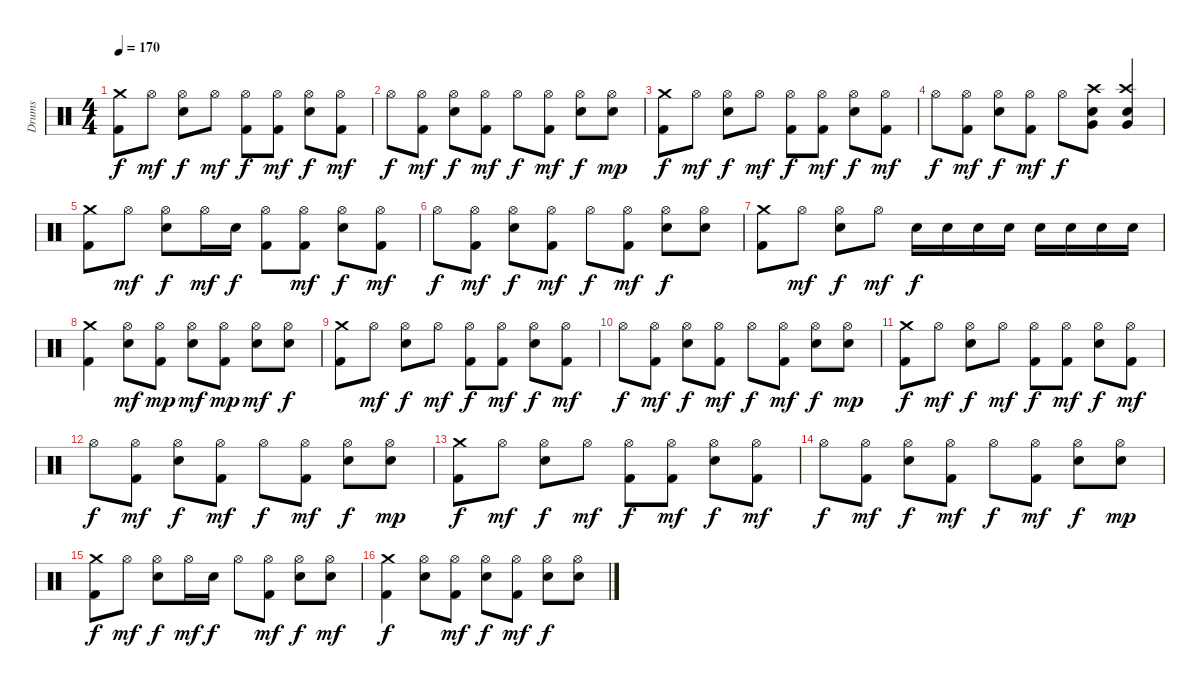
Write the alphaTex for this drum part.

\track ("Drums" "Drums") {instrument percussion}
\staff {score}
\articulation defaults
\ts (4 4)
\tempo 170
\clef neutral
\ks c
("Crash medium (hit)" "Kick (hit) 2").8{dy f} "Hi-Hat (open)".8{dy mf} ("Hi-Hat (open)" "Electric Snare (hit)").8{dy f} "Hi-Hat (open)".8{dy mf} ("Hi-Hat (open)" "Kick (hit) 2").8{dy f} ("Hi-Hat (open)" "Kick (hit) 2").8{dy mf} ("Hi-Hat (open)" "Electric Snare (hit)").8{dy f} ("Hi-Hat (open)" "Kick (hit) 2").8{dy mf} |
"Hi-Hat (open)".8{dy f} ("Hi-Hat (open)" "Kick (hit) 2").8{dy mf} ("Hi-Hat (open)" "Electric Snare (hit)").8{dy f} ("Hi-Hat (open)" "Kick (hit) 2").8{dy mf} "Hi-Hat (open)".8{dy f} ("Hi-Hat (open)" "Kick (hit) 2").8{dy mf} ("Hi-Hat (open)" "Electric Snare (hit)").8{dy f} ("Hi-Hat (open)" "Electric Snare (hit)").8{dy mp} |
("Crash medium (hit)" "Kick (hit) 2").8{dy f} "Hi-Hat (open)".8{dy mf} ("Hi-Hat (open)" "Electric Snare (hit)").8{dy f} "Hi-Hat (open)".8{dy mf} ("Hi-Hat (open)" "Kick (hit) 2").8{dy f} ("Hi-Hat (open)" "Kick (hit) 2").8{dy mf} ("Hi-Hat (open)" "Electric Snare (hit)").8{dy f} ("Hi-Hat (open)" "Kick (hit) 2").8{dy mf} |
"Hi-Hat (open)".8{dy f} ("Hi-Hat (open)" "Kick (hit) 2").8{dy mf} ("Hi-Hat (open)" "Electric Snare (hit)").8{dy f} ("Hi-Hat (open)" "Kick (hit) 2").8{dy mf} "Hi-Hat (open)".8{dy f} ("Crash high (hit)" "Very Low Tom (hit)" "Electric Snare (hit)").8 ("Crash high (hit)" "Very Low Tom (hit)" "Electric Snare (hit)").4 |
("Crash medium (hit)" "Kick (hit) 2").8 "Hi-Hat (open)".8{dy mf} ("Hi-Hat (open)" "Electric Snare (hit)").8{dy f} "Hi-Hat (open)".16{dy mf} "Electric Snare (hit)".16{dy f} ("Hi-Hat (open)" "Kick (hit) 2").8 ("Hi-Hat (open)" "Kick (hit) 2").8{dy mf} ("Hi-Hat (open)" "Electric Snare (hit)").8{dy f} ("Hi-Hat (open)" "Kick (hit) 2").8{dy mf} |
"Hi-Hat (open)".8{dy f} ("Hi-Hat (open)" "Kick (hit) 2").8{dy mf} ("Hi-Hat (open)" "Electric Snare (hit)").8{dy f} ("Hi-Hat (open)" "Kick (hit) 2").8{dy mf} "Hi-Hat (open)".8{dy f} ("Hi-Hat (open)" "Kick (hit) 2").8{dy mf} ("Hi-Hat (open)" "Electric Snare (hit)").8{dy f} ("Hi-Hat (open)" "Electric Snare (hit)").8 |
("Crash medium (hit)" "Kick (hit) 2").8 "Hi-Hat (open)".8{dy mf} ("Hi-Hat (open)" "Electric Snare (hit)").8{dy f} "Hi-Hat (open)".8{dy mf} "Electric Snare (hit)".16{dy f} "Electric Snare (hit)".16 "Electric Snare (hit)".16 "Electric Snare (hit)".16 "Electric Snare (hit)".16 "Electric Snare (hit)".16 "Electric Snare (hit)".16 "Electric Snare (hit)".16 |
("Crash medium (hit)" "Kick (hit) 2").4 ("Hi-Hat (open)" "Electric Snare (hit)").8{dy mf} ("Hi-Hat (open)" "Kick (hit) 2").8{dy mp} ("Hi-Hat (open)" "Electric Snare (hit)").8{dy mf} ("Hi-Hat (open)" "Kick (hit) 2").8{dy mp} ("Hi-Hat (open)" "Electric Snare (hit)").8{dy mf} ("Hi-Hat (open)" "Electric Snare (hit)").8{dy f} |
("Crash medium (hit)" "Kick (hit) 2").8 "Hi-Hat (open)".8{dy mf} ("Hi-Hat (open)" "Electric Snare (hit)").8{dy f} "Hi-Hat (open)".8{dy mf} ("Hi-Hat (open)" "Kick (hit) 2").8{dy f} ("Hi-Hat (open)" "Kick (hit) 2").8{dy mf} ("Hi-Hat (open)" "Electric Snare (hit)").8{dy f} ("Hi-Hat (open)" "Kick (hit) 2").8{dy mf} |
"Hi-Hat (open)".8{dy f} ("Hi-Hat (open)" "Kick (hit) 2").8{dy mf} ("Hi-Hat (open)" "Electric Snare (hit)").8{dy f} ("Hi-Hat (open)" "Kick (hit) 2").8{dy mf} "Hi-Hat (open)".8{dy f} ("Hi-Hat (open)" "Kick (hit) 2").8{dy mf} ("Hi-Hat (open)" "Electric Snare (hit)").8{dy f} ("Hi-Hat (open)" "Electric Snare (hit)").8{dy mp} |
("Crash medium (hit)" "Kick (hit) 2").8{dy f} "Hi-Hat (open)".8{dy mf} ("Hi-Hat (open)" "Electric Snare (hit)").8{dy f} "Hi-Hat (open)".8{dy mf} ("Hi-Hat (open)" "Kick (hit) 2").8{dy f} ("Hi-Hat (open)" "Kick (hit) 2").8{dy mf} ("Hi-Hat (open)" "Electric Snare (hit)").8{dy f} ("Hi-Hat (open)" "Kick (hit) 2").8{dy mf} |
"Hi-Hat (open)".8{dy f} ("Hi-Hat (open)" "Kick (hit) 2").8{dy mf} ("Hi-Hat (open)" "Electric Snare (hit)").8{dy f} ("Hi-Hat (open)" "Kick (hit) 2").8{dy mf} "Hi-Hat (open)".8{dy f} ("Hi-Hat (open)" "Kick (hit) 2").8{dy mf} ("Hi-Hat (open)" "Electric Snare (hit)").8{dy f} ("Hi-Hat (open)" "Electric Snare (hit)").8{dy mp} |
("Crash medium (hit)" "Kick (hit) 2").8{dy f} "Hi-Hat (open)".8{dy mf} ("Hi-Hat (open)" "Electric Snare (hit)").8{dy f} "Hi-Hat (open)".8{dy mf} ("Hi-Hat (open)" "Kick (hit) 2").8{dy f} ("Hi-Hat (open)" "Kick (hit) 2").8{dy mf} ("Hi-Hat (open)" "Electric Snare (hit)").8{dy f} ("Hi-Hat (open)" "Kick (hit) 2").8{dy mf} |
"Hi-Hat (open)".8{dy f} ("Hi-Hat (open)" "Kick (hit) 2").8{dy mf} ("Hi-Hat (open)" "Electric Snare (hit)").8{dy f} ("Hi-Hat (open)" "Kick (hit) 2").8{dy mf} "Hi-Hat (open)".8{dy f} ("Hi-Hat (open)" "Kick (hit) 2").8{dy mf} ("Hi-Hat (open)" "Electric Snare (hit)").8{dy f} ("Hi-Hat (open)" "Electric Snare (hit)").8{dy mp} |
("Crash medium (hit)" "Kick (hit) 2").8{dy f} "Hi-Hat (open)".8{dy mf} ("Hi-Hat (open)" "Electric Snare (hit)").8{dy f} "Hi-Hat (open)".16{dy mf} "Electric Snare (hit)".16{dy f} "Hi-Hat (open)".8 ("Hi-Hat (open)" "Kick (hit) 2").8{dy mf} ("Hi-Hat (open)" "Electric Snare (hit)").8{dy f} ("Hi-Hat (open)" "Electric Snare (hit)").8{dy mf} |
("Crash medium (hit)" "Kick (hit) 2").4{dy f} ("Hi-Hat (open)" "Electric Snare (hit)").8 ("Hi-Hat (open)" "Kick (hit) 2").8{dy mf} ("Hi-Hat (open)" "Electric Snare (hit)").8{dy f} ("Hi-Hat (open)" "Kick (hit) 2").8{dy mf} ("Hi-Hat (open)" "Electric Snare (hit)").8{dy f} ("Hi-Hat (open)" "Electric Snare (hit)").8
